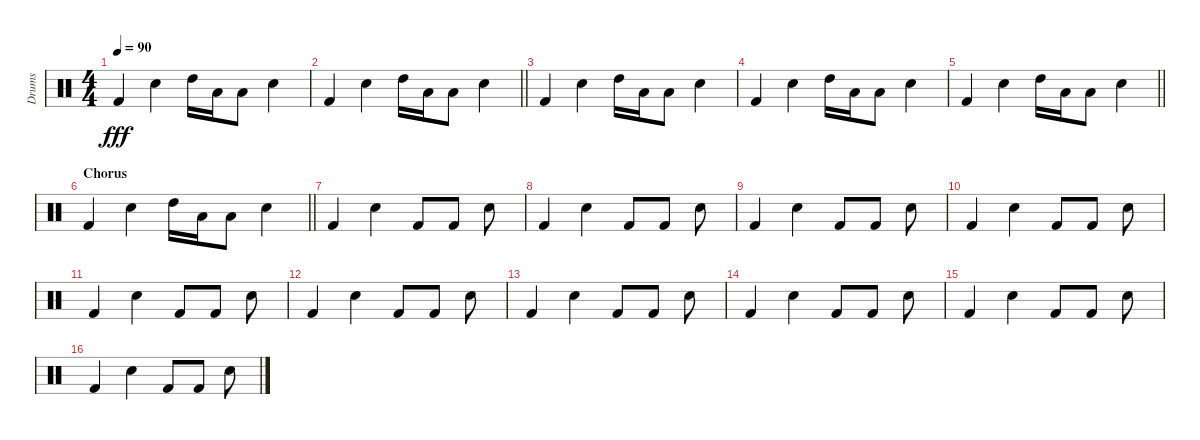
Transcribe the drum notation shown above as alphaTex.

\track ("Drums" "Drums") {instrument percussion}
\staff {score}
\articulation defaults
\ts (4 4)
\tempo 90
\clef neutral
\ks c "Kick (hit) 2".4{dy fff} "Snare (hit) 2".4 "High Tom (hit)".16 "Low Tom (hit)".16 "Low Floor Tom (hit)".8 "Snare (hit) 2".4
|
\barLineRight lightlight "Kick (hit) 2".4 "Snare (hit) 2".4 "High Tom (hit)".16 "Low Tom (hit)".16 "Low Floor Tom (hit)".8 "Snare (hit) 2".4
|
"Kick (hit) 2".4 "Snare (hit) 2".4 "High Tom (hit)".16 "Low Tom (hit)".16 "Low Floor Tom (hit)".8 "Snare (hit) 2".4 |
"Kick (hit) 2".4 "Snare (hit) 2".4 "High Tom (hit)".16 "Low Tom (hit)".16 "Low Floor Tom (hit)".8 "Snare (hit) 2".4 |
\barLineRight lightlight "Kick (hit) 2".4 "Snare (hit) 2".4 "High Tom (hit)".16 "Low Tom (hit)".16 "Low Floor Tom (hit)".8 "Snare (hit) 2".4
|
\section ("" "Chorus")
\barLineRight lightlight "Kick (hit) 2".4 "Snare (hit) 2".4 "High Tom (hit)".16 "Low Tom (hit)".16 "Low Floor Tom (hit)".8 "Snare (hit) 2".4
|
"Kick (hit) 2".4 "Snare (hit) 2".4 "Kick (hit) 2".8 "Kick (hit) 2".8 "Snare (hit) 2".8 |
"Kick (hit) 2".4 "Snare (hit) 2".4 "Kick (hit) 2".8 "Kick (hit) 2".8 "Snare (hit) 2".8 |
"Kick (hit) 2".4 "Snare (hit) 2".4 "Kick (hit) 2".8 "Kick (hit) 2".8 "Snare (hit) 2".8 |
"Kick (hit) 2".4 "Snare (hit) 2".4 "Kick (hit) 2".8 "Kick (hit) 2".8 "Snare (hit) 2".8 |
"Kick (hit) 2".4 "Snare (hit) 2".4 "Kick (hit) 2".8 "Kick (hit) 2".8 "Snare (hit) 2".8 |
"Kick (hit) 2".4 "Snare (hit) 2".4 "Kick (hit) 2".8 "Kick (hit) 2".8 "Snare (hit) 2".8 |
"Kick (hit) 2".4 "Snare (hit) 2".4 "Kick (hit) 2".8 "Kick (hit) 2".8 "Snare (hit) 2".8 |
"Kick (hit) 2".4 "Snare (hit) 2".4 "Kick (hit) 2".8 "Kick (hit) 2".8 "Snare (hit) 2".8 |
"Kick (hit) 2".4 "Snare (hit) 2".4 "Kick (hit) 2".8 "Kick (hit) 2".8 "Snare (hit) 2".8 |
"Kick (hit) 2".4 "Snare (hit) 2".4 "Kick (hit) 2".8 "Kick (hit) 2".8 "Snare (hit) 2".8
